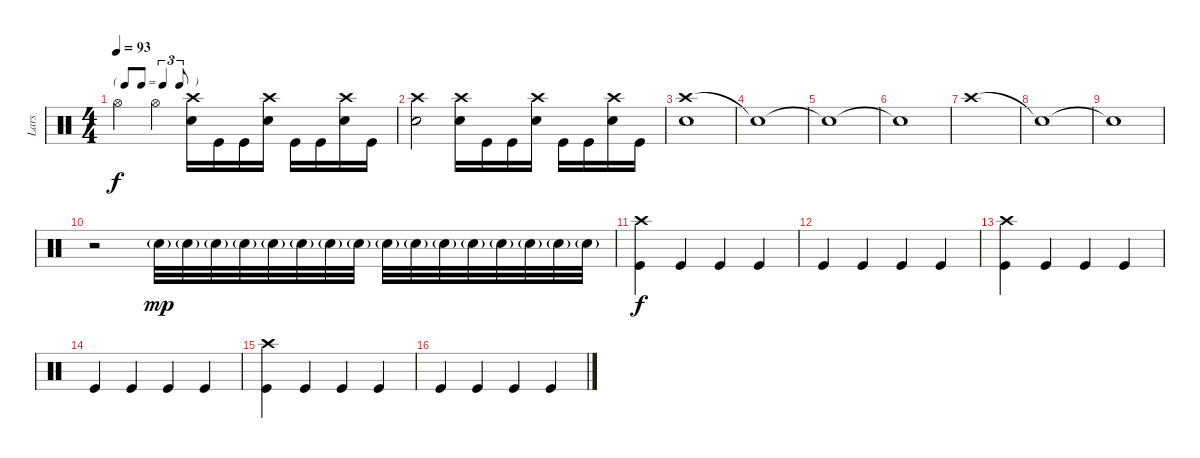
\track ("Lars" "Lars") {instrument percussion}
\staff {score}
\articulation defaults
\ts (4 4)
\tf triplet8th
\tempo 93
\clef neutral
\ks c "Hi-Hat (open)".4{dy f} "Hi-Hat (open)".4
("Crash high (hit)" "Snare (hit) 2").16 "Kick (hit)".16 "Kick (hit)".16 ("Crash high (hit)" "Snare (hit) 2").16 "Kick (hit)".16 "Kick (hit)".16 ("Crash high (hit)" "Snare (hit) 2").16 "Kick (hit)".16 |
("Crash high (hit)" "Snare (hit) 2").2 ("Crash high (hit)" "Snare (hit) 2").16 "Kick (hit)".16 "Kick (hit)".16 ("Crash high (hit)" "Snare (hit) 2").16 "Kick (hit)".16 "Kick (hit)".16 ("Crash high (hit)" "Snare (hit) 2").16 "Kick (hit)".16 |
("Crash high (hit)" "Snare (hit) 2").1 |
"Snare (hit)"{t}.1 |
"Snare (hit)"{t}.1 |
"Snare (hit)"{t}.1 |
"Crash high (hit)".1 |
"Snare (hit)"{t}.1 |
"Snare (hit)"{t}.1 |
r.2 "Snare (hit) 2"{g}.32{dy mp} "Snare (hit) 2"{g}.32 "Snare (hit) 2"{g}.32 "Snare (hit) 2"{g}.32 "Snare (hit) 2"{g}.32 "Snare (hit) 2"{g}.32 "Snare (hit) 2"{g}.32 "Snare (hit) 2"{g}.32 "Snare (hit) 2"{g}.32 "Snare (hit) 2"{g}.32 "Snare (hit) 2"{g}.32 "Snare (hit) 2"{g}.32 "Snare (hit) 2"{g}.32 "Snare (hit) 2"{g}.32 "Snare (hit) 2"{g}.32 "Snare (hit) 2"{g}.32 |
("Crash high (hit)" "Kick (hit)").4{dy f} "Kick (hit)".4 "Kick (hit)".4 "Kick (hit)".4 |
"Kick (hit)".4 "Kick (hit)".4 "Kick (hit)".4 "Kick (hit)".4 |
("Crash high (hit)" "Kick (hit)").4 "Kick (hit)".4 "Kick (hit)".4 "Kick (hit)".4 |
"Kick (hit)".4 "Kick (hit)".4 "Kick (hit)".4 "Kick (hit)".4 |
("Crash high (hit)" "Kick (hit)").4 "Kick (hit)".4 "Kick (hit)".4 "Kick (hit)".4 |
"Kick (hit)".4 "Kick (hit)".4 "Kick (hit)".4 "Kick (hit)".4
